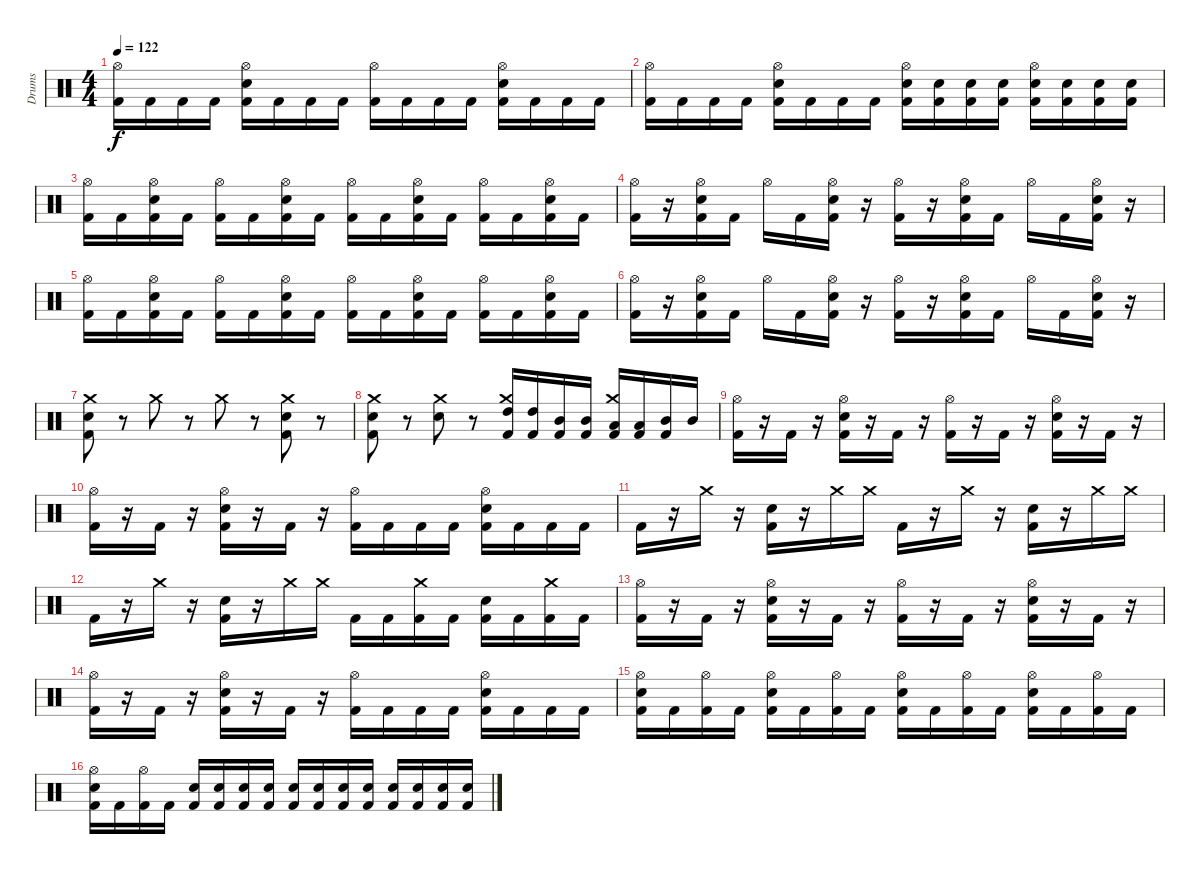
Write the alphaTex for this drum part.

\track ("Drums" "Drums") {instrument percussion}
\staff {score}
\articulation defaults
\ts (4 4)
\tempo 122
\clef neutral
\ks c
("Hi-Hat (open)" "Kick (hit) 2").16{dy f} "Kick (hit) 2".16 "Kick (hit) 2".16 "Kick (hit) 2".16 ("Hi-Hat (open)" "Snare (hit) 2" "Kick (hit) 2").16 "Kick (hit) 2".16 "Kick (hit) 2".16 "Kick (hit) 2".16 ("Hi-Hat (open)" "Kick (hit) 2").16 "Kick (hit) 2".16 "Kick (hit) 2".16 "Kick (hit) 2".16 ("Hi-Hat (open)" "Snare (hit) 2" "Kick (hit) 2").16 "Kick (hit) 2".16 "Kick (hit) 2".16 "Kick (hit) 2".16 |
("Hi-Hat (open)" "Kick (hit) 2").16 "Kick (hit) 2".16 "Kick (hit) 2".16 "Kick (hit) 2".16 ("Hi-Hat (open)" "Snare (hit) 2" "Kick (hit) 2").16 "Kick (hit) 2".16 "Kick (hit) 2".16 "Kick (hit) 2".16 ("Hi-Hat (open)" "Snare (hit) 2" "Kick (hit) 2").16 ("Snare (hit) 2" "Kick (hit) 2").16 ("Snare (hit) 2" "Kick (hit) 2").16 ("Snare (hit) 2" "Kick (hit) 2").16 ("Hi-Hat (open)" "Snare (hit) 2" "Kick (hit) 2").16 ("Snare (hit) 2" "Kick (hit) 2").16 ("Snare (hit) 2" "Kick (hit) 2").16 ("Snare (hit) 2" "Kick (hit) 2").16 |
("Hi-Hat (open)" "Kick (hit) 2").16 "Kick (hit) 2".16 ("Hi-Hat (open)" "Snare (hit) 2" "Kick (hit) 2").16 "Kick (hit) 2".16 ("Hi-Hat (open)" "Kick (hit) 2").16 "Kick (hit) 2".16 ("Hi-Hat (open)" "Snare (hit) 2" "Kick (hit) 2").16 "Kick (hit) 2".16 ("Hi-Hat (open)" "Kick (hit) 2").16 "Kick (hit) 2".16 ("Hi-Hat (open)" "Snare (hit) 2" "Kick (hit) 2").16 "Kick (hit) 2".16 ("Hi-Hat (open)" "Kick (hit) 2").16 "Kick (hit) 2".16 ("Hi-Hat (open)" "Snare (hit) 2" "Kick (hit) 2").16 "Kick (hit) 2".16 |
("Hi-Hat (open)" "Kick (hit) 2").16 r.16 ("Hi-Hat (open)" "Snare (hit) 2" "Kick (hit) 2").16 "Kick (hit) 2".16 "Hi-Hat (open)".16 "Kick (hit) 2".16 ("Hi-Hat (open)" "Snare (hit) 2" "Kick (hit) 2").16 r.16 ("Hi-Hat (open)" "Kick (hit) 2").16 r.16 ("Hi-Hat (open)" "Snare (hit) 2" "Kick (hit) 2").16 "Kick (hit) 2".16 "Hi-Hat (open)".16 "Kick (hit) 2".16 ("Hi-Hat (open)" "Snare (hit) 2" "Kick (hit) 2").16 r.16 |
("Hi-Hat (open)" "Kick (hit) 2").16 "Kick (hit) 2".16 ("Hi-Hat (open)" "Snare (hit) 2" "Kick (hit) 2").16 "Kick (hit) 2".16 ("Hi-Hat (open)" "Kick (hit) 2").16 "Kick (hit) 2".16 ("Hi-Hat (open)" "Snare (hit) 2" "Kick (hit) 2").16 "Kick (hit) 2".16 ("Hi-Hat (open)" "Kick (hit) 2").16 "Kick (hit) 2".16 ("Hi-Hat (open)" "Snare (hit) 2" "Kick (hit) 2").16 "Kick (hit) 2".16 ("Hi-Hat (open)" "Kick (hit) 2").16 "Kick (hit) 2".16 ("Hi-Hat (open)" "Snare (hit) 2" "Kick (hit) 2").16 "Kick (hit) 2".16 |
("Hi-Hat (open)" "Kick (hit) 2").16 r.16 ("Hi-Hat (open)" "Snare (hit) 2" "Kick (hit) 2").16 "Kick (hit) 2".16 "Hi-Hat (open)".16 "Kick (hit) 2".16 ("Hi-Hat (open)" "Snare (hit) 2" "Kick (hit) 2").16 r.16 ("Hi-Hat (open)" "Kick (hit) 2").16 r.16 ("Hi-Hat (open)" "Snare (hit) 2" "Kick (hit) 2").16 "Kick (hit) 2".16 "Hi-Hat (open)".16 "Kick (hit) 2".16 ("Hi-Hat (open)" "Snare (hit) 2" "Kick (hit) 2").16 r.16 |
("Crash medium (hit)" "Snare (hit) 2" "Kick (hit) 2").8 r.8 "Crash medium (hit)".8 r.8 "Crash medium (hit)".8 r.8 ("Crash medium (hit)" "Snare (hit) 2" "Kick (hit) 2").8 r.8 |
("Crash medium (hit)" "Snare (hit) 2" "Kick (hit) 2").8 r.8 ("Crash medium (hit)" "Snare (hit) 2").8 r.8 ("Crash medium (hit)" "High Tom (hit)" "Kick (hit) 2").16 ("High Tom (hit)" "Kick (hit) 2").16 ("Mid Tom (hit)" "Kick (hit) 2").16 ("Mid Tom (hit)" "Kick (hit) 2").16 ("Crash medium (hit)" "Low Tom (hit)" "Kick (hit) 2").16 ("Low Tom (hit)" "Kick (hit) 2").16 ("Mid Tom (hit)" "Kick (hit) 2").16 "Mid Tom (hit)".16 |
("Hi-Hat (open)" "Kick (hit) 2").16 r.16 "Kick (hit) 2".16 r.16 ("Hi-Hat (open)" "Snare (hit) 2" "Kick (hit) 2").16 r.16 "Kick (hit) 2".16 r.16 ("Hi-Hat (open)" "Kick (hit) 2").16 r.16 "Kick (hit) 2".16 r.16 ("Hi-Hat (open)" "Snare (hit) 2" "Kick (hit) 2").16 r.16 "Kick (hit) 2".16 r.16 |
("Hi-Hat (open)" "Kick (hit) 2").16 r.16 "Kick (hit) 2".16 r.16 ("Hi-Hat (open)" "Snare (hit) 2" "Kick (hit) 2").16 r.16 "Kick (hit) 2".16 r.16 ("Hi-Hat (open)" "Kick (hit) 2").16 "Kick (hit) 2".16 "Kick (hit) 2".16 "Kick (hit) 2".16 ("Hi-Hat (open)" "Snare (hit) 2" "Kick (hit) 2").16 "Kick (hit) 2".16 "Kick (hit) 2".16 "Kick (hit) 2".16 |
"Kick (hit) 2".16 r.16 "Crash medium (hit)".16 r.16 ("Snare (hit) 2" "Kick (hit) 2").16 r.16 "Crash medium (hit)".16 "Crash medium (hit)".16 "Kick (hit) 2".16 r.16 "Crash medium (hit)".16 r.16 ("Snare (hit) 2" "Kick (hit) 2").16 r.16 "Crash medium (hit)".16 "Crash medium (hit)".16 |
"Kick (hit) 2".16 r.16 "Crash medium (hit)".16 r.16 ("Snare (hit) 2" "Kick (hit) 2").16 r.16 "Crash medium (hit)".16 "Crash medium (hit)".16 "Kick (hit) 2".16 "Kick (hit) 2".16 ("Crash medium (hit)" "Kick (hit) 2").16 "Kick (hit) 2".16 ("Snare (hit) 2" "Kick (hit) 2").16 "Kick (hit) 2".16 ("Crash medium (hit)" "Kick (hit) 2").16 "Kick (hit) 2".16 |
("Hi-Hat (open)" "Kick (hit) 2").16 r.16 "Kick (hit) 2".16 r.16 ("Hi-Hat (open)" "Snare (hit) 2" "Kick (hit) 2").16 r.16 "Kick (hit) 2".16 r.16 ("Hi-Hat (open)" "Kick (hit) 2").16 r.16 "Kick (hit) 2".16 r.16 ("Hi-Hat (open)" "Snare (hit) 2" "Kick (hit) 2").16 r.16 "Kick (hit) 2".16 r.16 |
("Hi-Hat (open)" "Kick (hit) 2").16 r.16 "Kick (hit) 2".16 r.16 ("Hi-Hat (open)" "Snare (hit) 2" "Kick (hit) 2").16 r.16 "Kick (hit) 2".16 r.16 ("Hi-Hat (open)" "Kick (hit) 2").16 "Kick (hit) 2".16 "Kick (hit) 2".16 "Kick (hit) 2".16 ("Hi-Hat (open)" "Snare (hit) 2" "Kick (hit) 2").16 "Kick (hit) 2".16 "Kick (hit) 2".16 "Kick (hit) 2".16 |
("Hi-Hat (open)" "Snare (hit) 2" "Kick (hit) 2").16 "Kick (hit) 2".16 ("Hi-Hat (open)" "Kick (hit) 2").16 "Kick (hit) 2".16 ("Hi-Hat (open)" "Snare (hit) 2" "Kick (hit) 2").16 "Kick (hit) 2".16 ("Hi-Hat (open)" "Kick (hit) 2").16 "Kick (hit) 2".16 ("Hi-Hat (open)" "Snare (hit) 2" "Kick (hit) 2").16 "Kick (hit) 2".16 ("Hi-Hat (open)" "Kick (hit) 2").16 "Kick (hit) 2".16 ("Hi-Hat (open)" "Snare (hit) 2" "Kick (hit) 2").16 "Kick (hit) 2".16 ("Hi-Hat (open)" "Kick (hit) 2").16 "Kick (hit) 2".16 |
("Hi-Hat (open)" "Snare (hit) 2" "Kick (hit) 2").16 "Kick (hit) 2".16 ("Hi-Hat (open)" "Kick (hit) 2").16 "Kick (hit) 2".16 ("Snare (hit) 2" "Kick (hit) 2").16 ("Snare (hit) 2" "Kick (hit) 2").16 ("Snare (hit) 2" "Kick (hit) 2").16 ("Snare (hit) 2" "Kick (hit) 2").16 ("Snare (hit) 2" "Kick (hit) 2").16 ("Snare (hit) 2" "Kick (hit) 2").16 ("Snare (hit) 2" "Kick (hit) 2").16 ("Snare (hit) 2" "Kick (hit) 2").16 ("Snare (hit) 2" "Kick (hit) 2").16 ("Snare (hit) 2" "Kick (hit) 2").16 ("Snare (hit) 2" "Kick (hit) 2").16 ("Snare (hit) 2" "Kick (hit) 2").16
